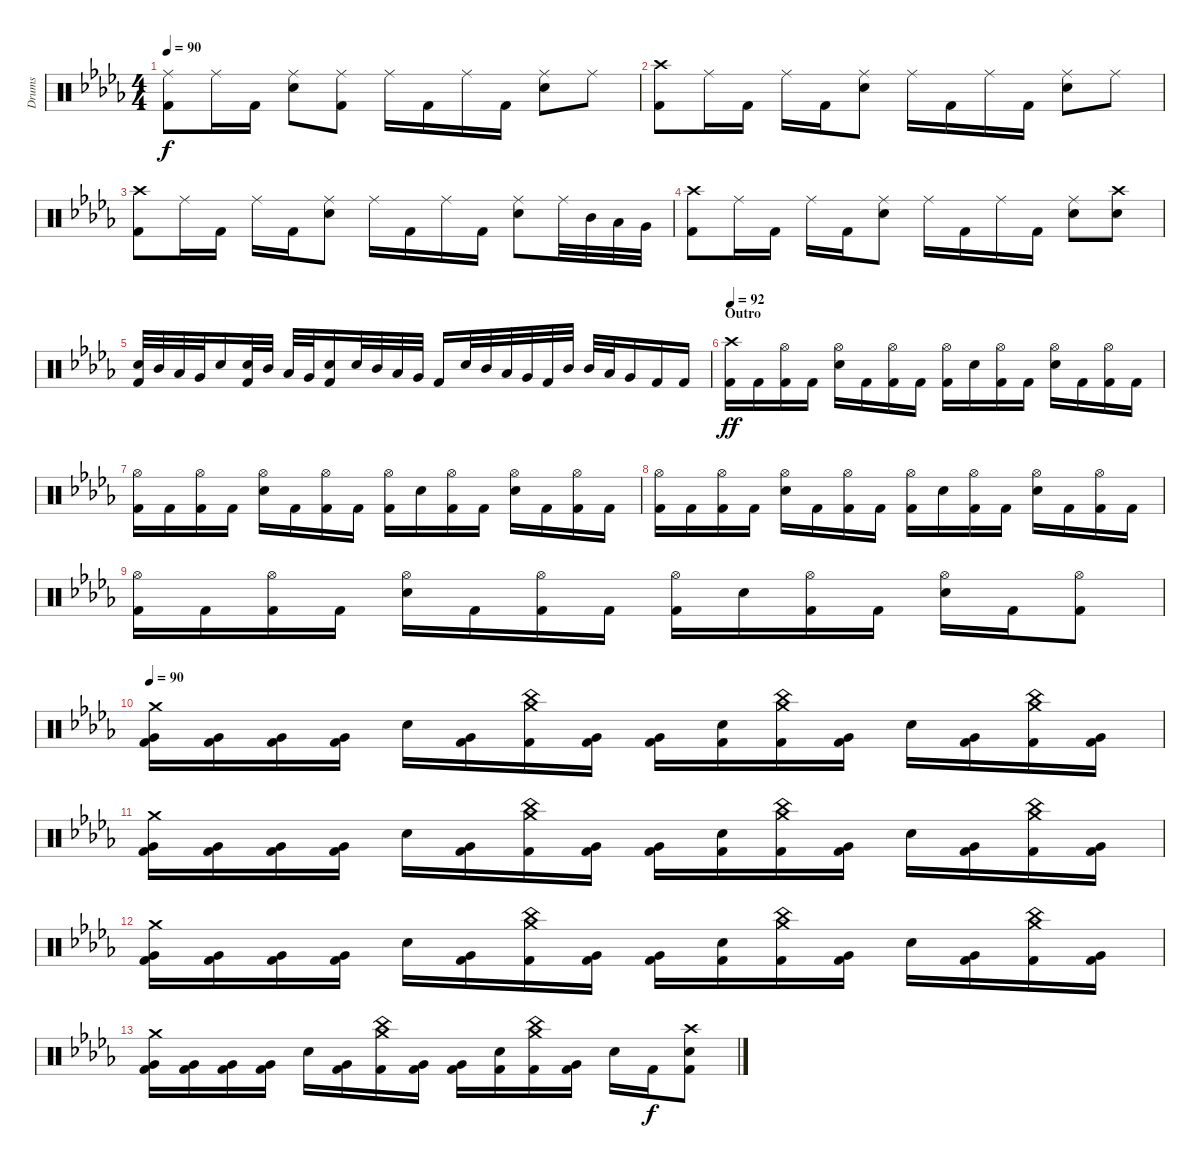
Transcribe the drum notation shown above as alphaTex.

\track ("Drums" "Drums") {instrument percussion}
\staff {score}
\articulation defaults
\ts (4 4)
\tempo 90
\clef neutral
\ks db
("Ride (middle)" "Kick (hit) 2").8{dy f} "Ride (middle)".16 "Kick (hit) 2".16 ("Ride (middle)" "Electric Snare (hit)").8 ("Ride (middle)" "Kick (hit) 2").8 "Ride (middle)".16 "Kick (hit) 2".16 "Ride (middle)".16 "Kick (hit) 2".16 ("Ride (middle)" "Electric Snare (hit)").8 "Ride (middle)".8 |
("Crash high (hit)" "Kick (hit) 2").8 "Ride (middle)".16 "Kick (hit) 2".16 "Ride (middle)".16 "Kick (hit) 2".16 ("Ride (middle)" "Electric Snare (hit)").8 "Ride (middle)".16 "Kick (hit) 2".16 "Ride (middle)".16 "Kick (hit) 2".16 ("Ride (middle)" "Electric Snare (hit)").8 "Ride (middle)".8 |
("Crash high (hit)" "Kick (hit) 2").8 "Ride (middle)".16 "Kick (hit) 2".16 "Ride (middle)".16 "Kick (hit) 2".16 ("Ride (middle)" "Electric Snare (hit)").8 "Ride (middle)".16 "Kick (hit) 2".16 "Ride (middle)".16 "Kick (hit) 2".16 ("Ride (middle)" "Electric Snare (hit)").8 "Ride (middle)".32 "Mid Tom (hit)".32 "Low Tom (hit)".32 "Very Low Tom (hit)".32 |
("Crash high (hit)" "Kick (hit) 2").8 "Ride (middle)".16 "Kick (hit) 2".16 "Ride (middle)".16 "Kick (hit) 2".16 ("Ride (middle)" "Electric Snare (hit)").8 "Ride (middle)".16 "Kick (hit) 2".16 "Ride (middle)".16 "Kick (hit) 2".16 ("Ride (middle)" "Electric Snare (hit)").8 ("Crash high (hit)" "Electric Snare (hit)").8 |
("Electric Snare (hit)" "Kick (hit) 2").32 "Mid Tom (hit)".32 "Low Tom (hit)".32 "Very Low Tom (hit)".32 "Electric Snare (hit)".16 ("Electric Snare (hit)" "Kick (hit) 2").32 "Mid Tom (hit)".32 "Low Tom (hit)".32 "Very Low Tom (hit)".32 ("Electric Snare (hit)" "Kick (hit) 2").16 "Electric Snare (hit)".32 "Mid Tom (hit)".32 "Low Tom (hit)".32 "Very Low Tom (hit)".32 "Kick (hit) 2".16 "Electric Snare (hit)".32 "Mid Tom (hit)".32 "Low Tom (hit)".32 "Very Low Tom (hit)".32 "Kick (hit) 2".32 "Mid Tom (hit)".32 "Mid Tom (hit)".32 "Low Tom (hit)".32 "Very Low Tom (hit)".16 "Kick (hit) 2".16 "Kick (hit) 2".16 |
\section ("" "Outro")
\tempo 92
("Crash high (hit)" "Kick (hit) 2").16{dy ff volume 13 balance 8} "Kick (hit) 2".16 ("Hi-Hat (open)" "Kick (hit) 2").16 "Kick (hit) 2".16 ("Hi-Hat (open)" "Electric Snare (hit)").16 "Kick (hit) 2".16 ("Hi-Hat (open)" "Kick (hit) 2").16 "Kick (hit) 2".16 ("Hi-Hat (open)" "Kick (hit) 2").16 "Electric Snare (hit)".16 ("Hi-Hat (open)" "Kick (hit) 2").16 "Kick (hit) 2".16 ("Hi-Hat (open)" "Electric Snare (hit)").16 "Kick (hit) 2".16 ("Hi-Hat (open)" "Kick (hit) 2").16 "Kick (hit) 2".16 |
("Hi-Hat (open)" "Kick (hit) 2").16 "Kick (hit) 2".16 ("Hi-Hat (open)" "Kick (hit) 2").16 "Kick (hit) 2".16 ("Hi-Hat (open)" "Electric Snare (hit)").16 "Kick (hit) 2".16 ("Hi-Hat (open)" "Kick (hit) 2").16 "Kick (hit) 2".16 ("Hi-Hat (open)" "Kick (hit) 2").16 "Electric Snare (hit)".16 ("Hi-Hat (open)" "Kick (hit) 2").16 "Kick (hit) 2".16 ("Hi-Hat (open)" "Electric Snare (hit)").16 "Kick (hit) 2".16 ("Hi-Hat (open)" "Kick (hit) 2").16 "Kick (hit) 2".16 |
("Hi-Hat (open)" "Kick (hit) 2").16 "Kick (hit) 2".16 ("Hi-Hat (open)" "Kick (hit) 2").16 "Kick (hit) 2".16 ("Hi-Hat (open)" "Electric Snare (hit)").16 "Kick (hit) 2".16 ("Hi-Hat (open)" "Kick (hit) 2").16 "Kick (hit) 2".16 ("Hi-Hat (open)" "Kick (hit) 2").16 "Electric Snare (hit)".16 ("Hi-Hat (open)" "Kick (hit) 2").16 "Kick (hit) 2".16 ("Hi-Hat (open)" "Electric Snare (hit)").16 "Kick (hit) 2".16 ("Hi-Hat (open)" "Kick (hit) 2").16 "Kick (hit) 2".16 |
("Hi-Hat (open)" "Kick (hit) 2").16 "Kick (hit) 2".16 ("Hi-Hat (open)" "Kick (hit) 2").16 "Kick (hit) 2".16 ("Hi-Hat (open)" "Electric Snare (hit)").16 "Kick (hit) 2".16 ("Hi-Hat (open)" "Kick (hit) 2").16 "Kick (hit) 2".16 ("Hi-Hat (open)" "Kick (hit) 2").16 "Electric Snare (hit)".16 ("Hi-Hat (open)" "Kick (hit) 2").16 "Kick (hit) 2".16 ("Hi-Hat (open)" "Electric Snare (hit)").16 "Kick (hit) 2".16 ("Hi-Hat (open)" "Kick (hit) 2").8 |
\tempo 90
("Crash medium (hit)" "Very Low Tom (hit)" "Kick (hit) 2").16 ("Very Low Tom (hit)" "Kick (hit) 2").16 ("Very Low Tom (hit)" "Kick (hit) 2").16 ("Very Low Tom (hit)" "Kick (hit) 2").16 "Electric Snare (hit)".16 ("Very Low Tom (hit)" "Kick (hit) 2").16 ("China (hit)" "Crash medium (hit)" "Kick (hit) 2").16 ("Very Low Tom (hit)" "Kick (hit) 2").16 ("Very Low Tom (hit)" "Kick (hit) 2").16 ("Electric Snare (hit)" "Kick (hit) 2").16 ("China (hit)" "Crash medium (hit)" "Kick (hit) 2").16 ("Very Low Tom (hit)" "Kick (hit) 2").16 "Electric Snare (hit)".16 ("Very Low Tom (hit)" "Kick (hit) 2").16 ("China (hit)" "Crash medium (hit)" "Kick (hit) 2").16 ("Very Low Tom (hit)" "Kick (hit) 2").16 |
("Crash medium (hit)" "Very Low Tom (hit)" "Kick (hit) 2").16 ("Very Low Tom (hit)" "Kick (hit) 2").16 ("Very Low Tom (hit)" "Kick (hit) 2").16 ("Very Low Tom (hit)" "Kick (hit) 2").16 "Electric Snare (hit)".16 ("Very Low Tom (hit)" "Kick (hit) 2").16 ("China (hit)" "Crash medium (hit)" "Kick (hit) 2").16 ("Very Low Tom (hit)" "Kick (hit) 2").16 ("Very Low Tom (hit)" "Kick (hit) 2").16 ("Electric Snare (hit)" "Kick (hit) 2").16 ("China (hit)" "Crash medium (hit)" "Kick (hit) 2").16 ("Very Low Tom (hit)" "Kick (hit) 2").16 "Electric Snare (hit)".16 ("Very Low Tom (hit)" "Kick (hit) 2").16 ("China (hit)" "Crash medium (hit)" "Kick (hit) 2").16 ("Very Low Tom (hit)" "Kick (hit) 2").16 |
("Crash medium (hit)" "Very Low Tom (hit)" "Kick (hit) 2").16 ("Very Low Tom (hit)" "Kick (hit) 2").16 ("Very Low Tom (hit)" "Kick (hit) 2").16 ("Very Low Tom (hit)" "Kick (hit) 2").16 "Electric Snare (hit)".16 ("Very Low Tom (hit)" "Kick (hit) 2").16 ("China (hit)" "Crash medium (hit)" "Kick (hit) 2").16 ("Very Low Tom (hit)" "Kick (hit) 2").16 ("Very Low Tom (hit)" "Kick (hit) 2").16 ("Electric Snare (hit)" "Kick (hit) 2").16 ("China (hit)" "Crash medium (hit)" "Kick (hit) 2").16 ("Very Low Tom (hit)" "Kick (hit) 2").16 "Electric Snare (hit)".16 ("Very Low Tom (hit)" "Kick (hit) 2").16 ("China (hit)" "Crash medium (hit)" "Kick (hit) 2").16 ("Very Low Tom (hit)" "Kick (hit) 2").16 |
("Crash medium (hit)" "Very Low Tom (hit)" "Kick (hit) 2").16 ("Very Low Tom (hit)" "Kick (hit) 2").16 ("Very Low Tom (hit)" "Kick (hit) 2").16 ("Very Low Tom (hit)" "Kick (hit) 2").16 "Electric Snare (hit)".16 ("Very Low Tom (hit)" "Kick (hit) 2").16 ("China (hit)" "Crash medium (hit)" "Kick (hit) 2").16 ("Very Low Tom (hit)" "Kick (hit) 2").16 ("Very Low Tom (hit)" "Kick (hit) 2").16 ("Electric Snare (hit)" "Kick (hit) 2").16 ("China (hit)" "Crash medium (hit)" "Kick (hit) 2").16 ("Very Low Tom (hit)" "Kick (hit) 2").16 "Electric Snare (hit)".16 "Kick (hit) 2".16{dy f} ("Crash high (hit)" "Electric Snare (hit)" "Kick (hit) 2").8
